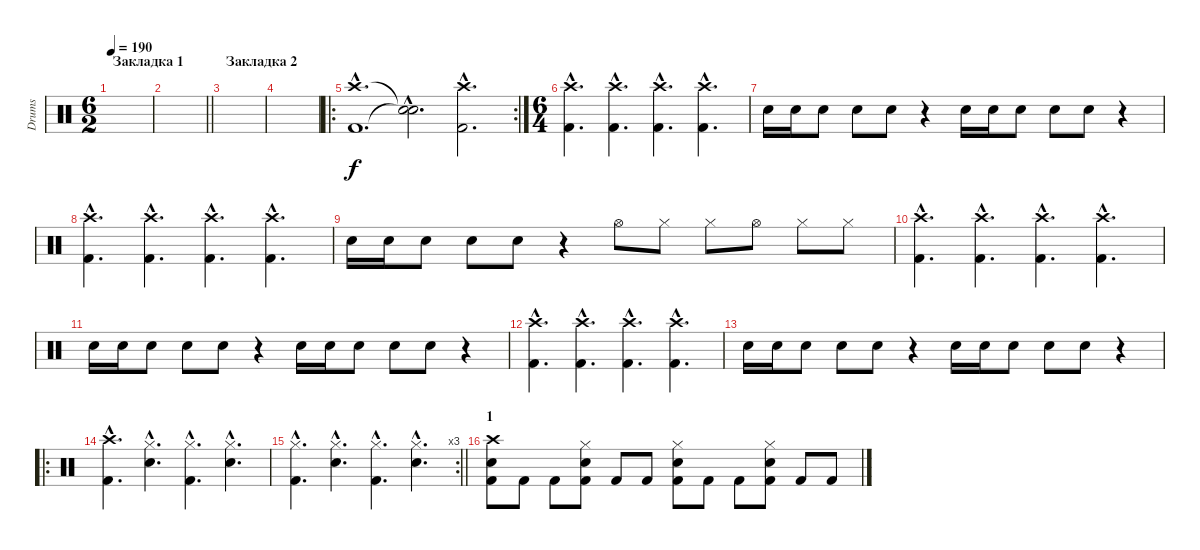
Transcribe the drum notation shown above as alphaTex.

\track ("Drums" "Drums") {instrument percussion}
\staff {score}
\articulation defaults
\ts (6 2)
\section ("" "Закладка 1")
\tempo 190
\clef neutral
\ks c
|
\barLineRight lightlight
|
\section ("" "Закладка 2")
|
|
\ro
\rc 2
("Crash high (hit)"{hac} "Kick (hit) 2"{hac}).1{d} ("Snare (hit)"{hac t} "Snare (hit)"{hac t}).2{d} ("Crash high (hit)"{hac} "Kick (hit) 2"{hac}).2{d} |
\ts (6 4)
("Crash high (hit)"{hac} "Kick (hit) 2"{hac}).4{d} ("Crash high (hit)"{hac} "Kick (hit) 2"{hac}).4{d} ("Crash high (hit)"{hac} "Kick (hit) 2"{hac}).4{d} ("Crash high (hit)"{hac} "Kick (hit) 2"{hac}).4{d} |
"Snare (hit) 2".16 "Snare (hit) 2".16 "Snare (hit) 2".8 "Snare (hit) 2".8 "Snare (hit) 2".8 r.4 "Snare (hit) 2".16 "Snare (hit) 2".16 "Snare (hit) 2".8 "Snare (hit) 2".8 "Snare (hit) 2".8 r.4 |
("Crash high (hit)"{hac} "Kick (hit) 2"{hac}).4{d} ("Crash high (hit)"{hac} "Kick (hit) 2"{hac}).4{d} ("Crash high (hit)"{hac} "Kick (hit) 2"{hac}).4{d} ("Crash high (hit)"{hac} "Kick (hit) 2"{hac}).4{d} |
"Snare (hit) 2".16 "Snare (hit) 2".16 "Snare (hit) 2".8 "Snare (hit) 2".8 "Snare (hit) 2".8 r.4 "Hi-Hat (open)".8 "Hi-Hat (closed)".8 "Hi-Hat (closed)".8 "Hi-Hat (open)".8 "Hi-Hat (closed)".8 "Hi-Hat (closed)".8 |
("Crash high (hit)"{hac} "Kick (hit) 2"{hac}).4{d} ("Crash high (hit)"{hac} "Kick (hit) 2"{hac}).4{d} ("Crash high (hit)"{hac} "Kick (hit) 2"{hac}).4{d} ("Crash high (hit)"{hac} "Kick (hit) 2"{hac}).4{d} |
"Snare (hit) 2".16 "Snare (hit) 2".16 "Snare (hit) 2".8 "Snare (hit) 2".8 "Snare (hit) 2".8 r.4 "Snare (hit) 2".16 "Snare (hit) 2".16 "Snare (hit) 2".8 "Snare (hit) 2".8 "Snare (hit) 2".8 r.4 |
("Crash high (hit)"{hac} "Kick (hit) 2"{hac}).4{d} ("Crash high (hit)"{hac} "Kick (hit) 2"{hac}).4{d} ("Crash high (hit)"{hac} "Kick (hit) 2"{hac}).4{d} ("Crash high (hit)"{hac} "Kick (hit) 2"{hac}).4{d} |
"Snare (hit) 2".16 "Snare (hit) 2".16 "Snare (hit) 2".8 "Snare (hit) 2".8 "Snare (hit) 2".8 r.4 "Snare (hit) 2".16 "Snare (hit) 2".16 "Snare (hit) 2".8 "Snare (hit) 2".8 "Snare (hit) 2".8 r.4 |
\ro
("Crash high (hit)"{hac} "Kick (hit) 2"{hac}).4{d} ("Hi-Hat (closed)"{hac} "Snare (hit) 2"{hac}).4{d} ("Hi-Hat (closed)"{hac} "Kick (hit) 2"{hac}).4{d} ("Hi-Hat (closed)"{hac} "Snare (hit) 2"{hac}).4{d} |
\rc 3
\barLineRight lightlight
("Hi-Hat (closed)"{hac} "Kick (hit) 2"{hac}).4{d} ("Hi-Hat (closed)"{hac} "Snare (hit) 2"{hac}).4{d} ("Hi-Hat (closed)"{hac} "Kick (hit) 2"{hac}).4{d} ("Hi-Hat (closed)"{hac} "Snare (hit) 2"{hac}).4{d} |
\section ("" "1")
("Crash high (hit)" "Snare (hit) 2" "Kick (hit) 2").8 "Kick (hit) 2".8 "Kick (hit) 2".8 ("Hi-Hat (closed)" "Snare (hit) 2" "Kick (hit) 2").8 "Kick (hit) 2".8 "Kick (hit) 2".8 ("Hi-Hat (closed)" "Snare (hit) 2" "Kick (hit) 2").8 "Kick (hit) 2".8 "Kick (hit) 2".8 ("Hi-Hat (closed)" "Snare (hit) 2" "Kick (hit) 2").8 "Kick (hit) 2".8 "Kick (hit) 2".8
